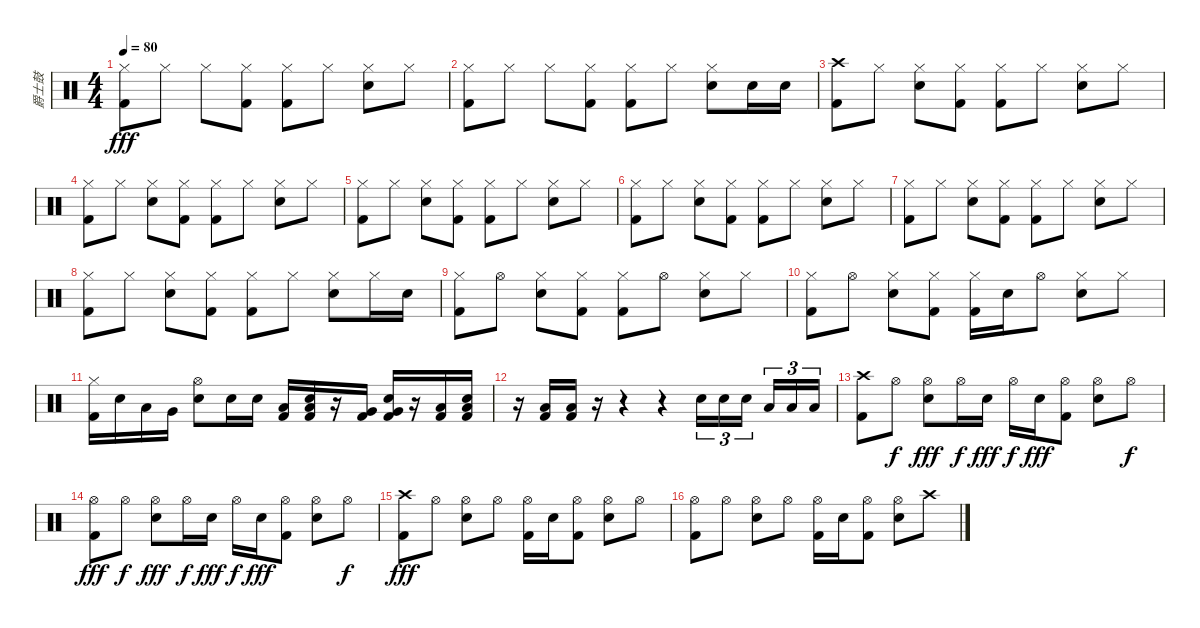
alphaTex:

\track ("爵士鼓" "爵士鼓") {instrument percussion}
\staff {score}
\articulation defaults
\ts (4 4)
\tempo 80
\clef neutral
\ks c
("Hi-Hat (closed)" "Kick (hit) 2").8{dy fff} "Hi-Hat (closed)".8 "Hi-Hat (closed)".8 ("Hi-Hat (closed)" "Kick (hit) 2").8 ("Hi-Hat (closed)" "Kick (hit) 2").8 "Hi-Hat (closed)".8 ("Hi-Hat (closed)" "Electric Snare (hit)").8 "Hi-Hat (closed)".8 |
("Hi-Hat (closed)" "Kick (hit) 2").8 "Hi-Hat (closed)".8 "Hi-Hat (closed)".8 ("Hi-Hat (closed)" "Kick (hit) 2").8 ("Hi-Hat (closed)" "Kick (hit) 2").8 "Hi-Hat (closed)".8 ("Hi-Hat (closed)" "Electric Snare (hit)").8 "Electric Snare (hit)".16 "Electric Snare (hit)".16 |
("Crash high (hit)" "Kick (hit) 2").8 "Hi-Hat (closed)".8 ("Hi-Hat (closed)" "Electric Snare (hit)").8 ("Hi-Hat (closed)" "Kick (hit) 2").8 ("Hi-Hat (closed)" "Kick (hit) 2").8 "Hi-Hat (closed)".8 ("Hi-Hat (closed)" "Electric Snare (hit)").8 "Hi-Hat (closed)".8 |
("Hi-Hat (closed)" "Kick (hit) 2").8 "Hi-Hat (closed)".8 ("Hi-Hat (closed)" "Electric Snare (hit)").8 ("Hi-Hat (closed)" "Kick (hit) 2").8 ("Hi-Hat (closed)" "Kick (hit) 2").8 "Hi-Hat (closed)".8 ("Hi-Hat (closed)" "Electric Snare (hit)").8 "Hi-Hat (closed)".8 |
("Hi-Hat (closed)" "Kick (hit) 2").8 "Hi-Hat (closed)".8 ("Hi-Hat (closed)" "Electric Snare (hit)").8 ("Hi-Hat (closed)" "Kick (hit) 2").8 ("Hi-Hat (closed)" "Kick (hit) 2").8 "Hi-Hat (closed)".8 ("Hi-Hat (closed)" "Electric Snare (hit)").8 "Hi-Hat (closed)".8 |
("Hi-Hat (closed)" "Kick (hit) 2").8 "Hi-Hat (closed)".8 ("Hi-Hat (closed)" "Electric Snare (hit)").8 ("Hi-Hat (closed)" "Kick (hit) 2").8 ("Hi-Hat (closed)" "Kick (hit) 2").8 "Hi-Hat (closed)".8 ("Hi-Hat (closed)" "Electric Snare (hit)").8 "Hi-Hat (closed)".8 |
("Hi-Hat (closed)" "Kick (hit) 2").8 "Hi-Hat (closed)".8 ("Hi-Hat (closed)" "Electric Snare (hit)").8 ("Hi-Hat (closed)" "Kick (hit) 2").8 ("Hi-Hat (closed)" "Kick (hit) 2").8 "Hi-Hat (closed)".8 ("Hi-Hat (closed)" "Electric Snare (hit)").8 "Hi-Hat (closed)".8 |
("Hi-Hat (closed)" "Kick (hit) 2").8 "Hi-Hat (closed)".8 ("Hi-Hat (closed)" "Electric Snare (hit)").8 ("Hi-Hat (closed)" "Kick (hit) 2").8 ("Hi-Hat (closed)" "Kick (hit) 2").8 "Hi-Hat (closed)".8 ("Hi-Hat (closed)" "Electric Snare (hit)").8 "Hi-Hat (closed)".16 "Electric Snare (hit)".16 |
("Hi-Hat (closed)" "Kick (hit) 2").8 "Hi-Hat (open)".8 ("Hi-Hat (closed)" "Electric Snare (hit)").8 ("Hi-Hat (closed)" "Kick (hit) 2").8 ("Hi-Hat (closed)" "Kick (hit) 2").8 "Hi-Hat (open)".8 ("Hi-Hat (closed)" "Electric Snare (hit)").8 "Hi-Hat (closed)".8 |
("Hi-Hat (closed)" "Kick (hit) 2").8 "Hi-Hat (open)".8 ("Hi-Hat (closed)" "Electric Snare (hit)").8 ("Hi-Hat (closed)" "Kick (hit) 2").8 ("Hi-Hat (closed)" "Kick (hit) 2").16 "Electric Snare (hit)".16 "Hi-Hat (open)".8 ("Hi-Hat (closed)" "Electric Snare (hit)").8 "Hi-Hat (closed)".8 |
("Hi-Hat (closed)" "Kick (hit) 2").16 "Electric Snare (hit)".16 "Low Tom (hit)".16 "Very Low Tom (hit)".16 ("Hi-Hat (open)" "Electric Snare (hit)").8 "Electric Snare (hit)".16 "Electric Snare (hit)".16 ("Low Tom (hit)" "Kick (hit) 2").16 ("Electric Snare (hit)" "Low Tom (hit)" "Kick (hit) 2").16 r.16 ("Very Low Tom (hit)" "Kick (hit) 2").16 ("Electric Snare (hit)" "Very Low Tom (hit)" "Kick (hit) 2").16 r.16 ("Low Floor Tom (hit)" "Kick (hit) 2").16 ("Electric Snare (hit)" "Low Floor Tom (hit)" "Kick (hit) 2").16 |
r.16 ("Low Floor Tom (hit)" "Kick (hit) 2").16 ("Low Floor Tom (hit)" "Kick (hit) 2").16 r.16 r.4 r.4 "Electric Snare (hit)".16{tu (3 2)} "Electric Snare (hit)".16{tu (3 2)} "Electric Snare (hit)".16{tu (3 2) beam splitsecondary} "Low Tom (hit)".16{tu (3 2)} "Low Tom (hit)".16{tu (3 2)} "Low Tom (hit)".16{tu (3 2)} |
("Crash high (hit)" "Kick (hit) 2").8 "Hi-Hat (open)".8{dy f} ("Hi-Hat (open)" "Electric Snare (hit)").8{dy fff} "Hi-Hat (open)".16{dy f} "Electric Snare (hit)".16{dy fff} "Hi-Hat (open)".16{dy f} "Electric Snare (hit)".16{dy fff} ("Hi-Hat (open)" "Kick (hit) 2").8 ("Hi-Hat (open)" "Electric Snare (hit)").8 "Hi-Hat (open)".8{dy f} |
("Hi-Hat (open)" "Kick (hit) 2").8{dy fff} "Hi-Hat (open)".8{dy f} ("Hi-Hat (open)" "Electric Snare (hit)").8{dy fff} "Hi-Hat (open)".16{dy f} "Electric Snare (hit)".16{dy fff} "Hi-Hat (open)".16{dy f} "Electric Snare (hit)".16{dy fff} ("Hi-Hat (open)" "Kick (hit) 2").8 ("Hi-Hat (open)" "Electric Snare (hit)").8 "Hi-Hat (open)".8{dy f} |
("Crash high (hit)" "Kick (hit) 2").8{dy fff} "Hi-Hat (open)".8 ("Hi-Hat (open)" "Electric Snare (hit)").8 "Hi-Hat (open)".8 ("Hi-Hat (open)" "Kick (hit) 2").16 "Electric Snare (hit)".16 ("Hi-Hat (open)" "Kick (hit) 2").8 ("Hi-Hat (open)" "Electric Snare (hit)").8 "Hi-Hat (open)".8 |
("Hi-Hat (open)" "Kick (hit) 2").8 "Hi-Hat (open)".8 ("Hi-Hat (open)" "Electric Snare (hit)").8 "Hi-Hat (open)".8 ("Hi-Hat (open)" "Kick (hit) 2").16 "Electric Snare (hit)".16 ("Hi-Hat (open)" "Kick (hit) 2").8 ("Hi-Hat (open)" "Electric Snare (hit)").8 "Crash high (hit)".8
